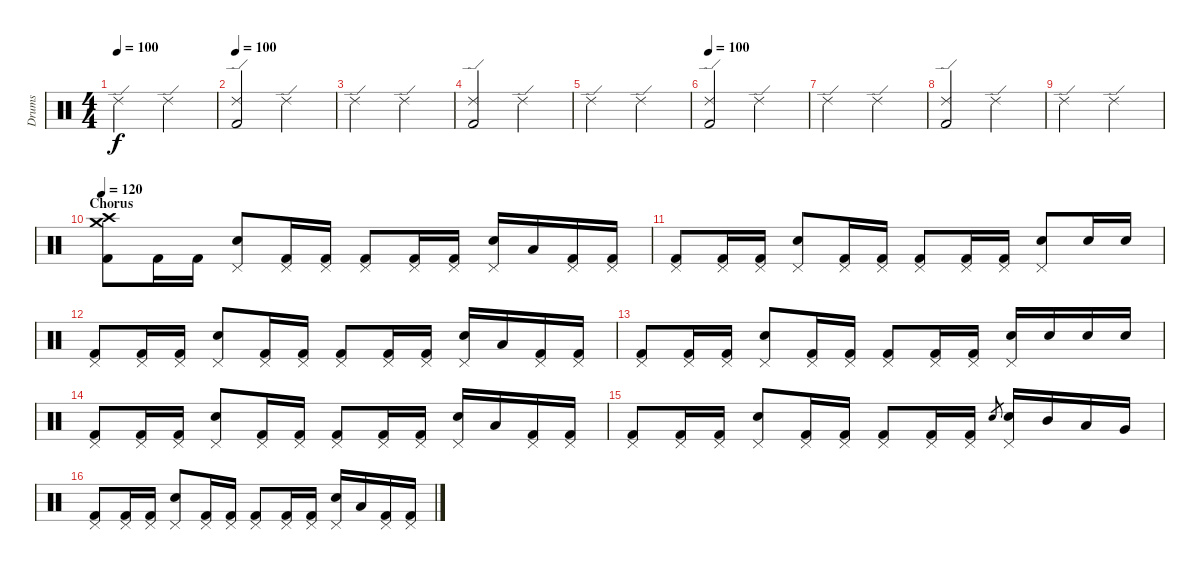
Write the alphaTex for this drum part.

\track ("Drums" "Drums") {instrument percussion}
\staff {score}
\articulation defaults
\ts (4 4)
\tempo 100
\clef neutral
\ks c "Ride (edge) 2".2{dy f} "Ride (edge) 2".2
|
\tempo 100
("Ride (edge) 2" "Kick (hit) 2").2 "Ride (edge) 2".2 |
"Ride (edge) 2".2 "Ride (edge) 2".2 |
("Ride (edge) 2" "Kick (hit) 2").2 "Ride (edge) 2".2 |
"Ride (edge) 2".2 "Ride (edge) 2".2 |
\tempo 100
("Ride (edge) 2" "Kick (hit) 2").2 "Ride (edge) 2".2 |
"Ride (edge) 2".2 "Ride (edge) 2".2 |
("Ride (edge) 2" "Kick (hit) 2").2 "Ride (edge) 2".2 |
"Ride (edge) 2".2 "Ride (edge) 2".2 |
\section ("" "Chorus")
\tempo 120
("Crash medium (hit)" "Crash high (hit)" "Kick (hit) 2").8 "Kick (hit) 2".16 "Kick (hit) 2".16 ("Pedal Hi-Hat (hit)" "Electric Snare (hit)").8 ("Pedal Hi-Hat (hit)" "Kick (hit) 2").16 ("Pedal Hi-Hat (hit)" "Kick (hit) 2").16 ("Pedal Hi-Hat (hit)" "Kick (hit) 2").8 ("Pedal Hi-Hat (hit)" "Kick (hit) 2").16 ("Pedal Hi-Hat (hit)" "Kick (hit) 2").16 ("Pedal Hi-Hat (hit)" "Electric Snare (hit)").16 "Low Tom (hit)".16 ("Pedal Hi-Hat (hit)" "Kick (hit) 2").16 ("Pedal Hi-Hat (hit)" "Kick (hit) 2").16 |
("Pedal Hi-Hat (hit)" "Kick (hit) 2").8 ("Pedal Hi-Hat (hit)" "Kick (hit) 2").16 ("Pedal Hi-Hat (hit)" "Kick (hit) 2").16 ("Pedal Hi-Hat (hit)" "Electric Snare (hit)").8 ("Pedal Hi-Hat (hit)" "Kick (hit) 2").16 ("Pedal Hi-Hat (hit)" "Kick (hit) 2").16 ("Pedal Hi-Hat (hit)" "Kick (hit) 2").8 ("Pedal Hi-Hat (hit)" "Kick (hit) 2").16 ("Pedal Hi-Hat (hit)" "Kick (hit) 2").16 ("Pedal Hi-Hat (hit)" "Electric Snare (hit)").8 "Electric Snare (hit)".16 "Electric Snare (hit)".16 |
("Pedal Hi-Hat (hit)" "Kick (hit) 2").8 ("Pedal Hi-Hat (hit)" "Kick (hit) 2").16 ("Pedal Hi-Hat (hit)" "Kick (hit) 2").16 ("Pedal Hi-Hat (hit)" "Electric Snare (hit)").8 ("Pedal Hi-Hat (hit)" "Kick (hit) 2").16 ("Pedal Hi-Hat (hit)" "Kick (hit) 2").16 ("Pedal Hi-Hat (hit)" "Kick (hit) 2").8 ("Pedal Hi-Hat (hit)" "Kick (hit) 2").16 ("Pedal Hi-Hat (hit)" "Kick (hit) 2").16 ("Pedal Hi-Hat (hit)" "Electric Snare (hit)").16 "Low Tom (hit)".16 ("Pedal Hi-Hat (hit)" "Kick (hit) 2").16 ("Pedal Hi-Hat (hit)" "Kick (hit) 2").16 |
("Pedal Hi-Hat (hit)" "Kick (hit) 2").8 ("Pedal Hi-Hat (hit)" "Kick (hit) 2").16 ("Pedal Hi-Hat (hit)" "Kick (hit) 2").16 ("Pedal Hi-Hat (hit)" "Electric Snare (hit)").8 ("Pedal Hi-Hat (hit)" "Kick (hit) 2").16 ("Pedal Hi-Hat (hit)" "Kick (hit) 2").16 ("Pedal Hi-Hat (hit)" "Kick (hit) 2").8 ("Pedal Hi-Hat (hit)" "Kick (hit) 2").16 ("Pedal Hi-Hat (hit)" "Kick (hit) 2").16 ("Pedal Hi-Hat (hit)" "Electric Snare (hit)").16 "Electric Snare (hit)".16 "Electric Snare (hit)".16 "Electric Snare (hit)".16 |
("Pedal Hi-Hat (hit)" "Kick (hit) 2").8 ("Pedal Hi-Hat (hit)" "Kick (hit) 2").16 ("Pedal Hi-Hat (hit)" "Kick (hit) 2").16 ("Pedal Hi-Hat (hit)" "Electric Snare (hit)").8 ("Pedal Hi-Hat (hit)" "Kick (hit) 2").16 ("Pedal Hi-Hat (hit)" "Kick (hit) 2").16 ("Pedal Hi-Hat (hit)" "Kick (hit) 2").8 ("Pedal Hi-Hat (hit)" "Kick (hit) 2").16 ("Pedal Hi-Hat (hit)" "Kick (hit) 2").16 ("Pedal Hi-Hat (hit)" "Electric Snare (hit)").16 "Low Tom (hit)".16 ("Pedal Hi-Hat (hit)" "Kick (hit) 2").16 ("Pedal Hi-Hat (hit)" "Kick (hit) 2").16 |
("Pedal Hi-Hat (hit)" "Kick (hit) 2").8 ("Pedal Hi-Hat (hit)" "Kick (hit) 2").16 ("Pedal Hi-Hat (hit)" "Kick (hit) 2").16 ("Pedal Hi-Hat (hit)" "Electric Snare (hit)").8 ("Pedal Hi-Hat (hit)" "Kick (hit) 2").16 ("Pedal Hi-Hat (hit)" "Kick (hit) 2").16 ("Pedal Hi-Hat (hit)" "Kick (hit) 2").8 ("Pedal Hi-Hat (hit)" "Kick (hit) 2").16 ("Pedal Hi-Hat (hit)" "Kick (hit) 2").16 "Electric Snare (hit)".8{gr} ("Pedal Hi-Hat (hit)" "Electric Snare (hit)").16 "Mid Tom (hit)".16 "Low Tom (hit)".16 "Very Low Tom (hit)".16 |
("Pedal Hi-Hat (hit)" "Kick (hit) 2").8 ("Pedal Hi-Hat (hit)" "Kick (hit) 2").16 ("Pedal Hi-Hat (hit)" "Kick (hit) 2").16 ("Pedal Hi-Hat (hit)" "Electric Snare (hit)").8 ("Pedal Hi-Hat (hit)" "Kick (hit) 2").16 ("Pedal Hi-Hat (hit)" "Kick (hit) 2").16 ("Pedal Hi-Hat (hit)" "Kick (hit) 2").8 ("Pedal Hi-Hat (hit)" "Kick (hit) 2").16 ("Pedal Hi-Hat (hit)" "Kick (hit) 2").16 ("Pedal Hi-Hat (hit)" "Electric Snare (hit)").16 "Low Tom (hit)".16 ("Pedal Hi-Hat (hit)" "Kick (hit) 2").16 ("Pedal Hi-Hat (hit)" "Kick (hit) 2").16
